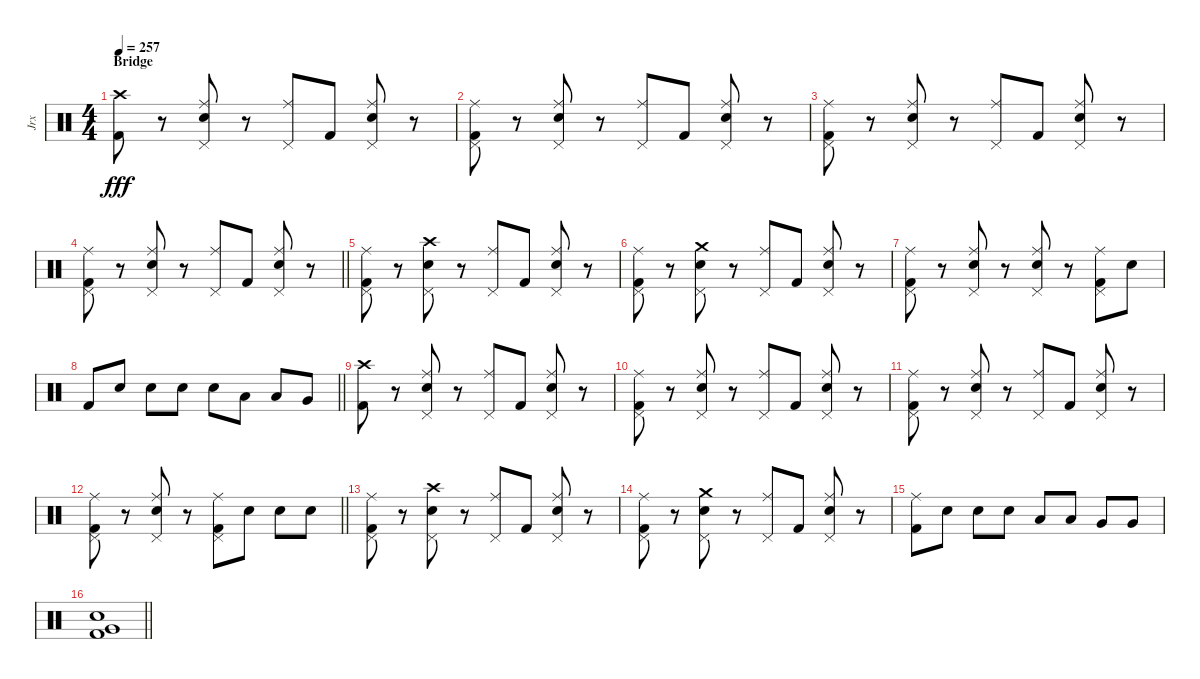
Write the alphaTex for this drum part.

\track ("Jrx" "Jrx") {instrument percussion}
\staff {score}
\articulation defaults
\ts (4 4)
\section ("" "Bridge")
\tempo 257
\clef neutral
\ks c
("Kick (hit) 2" "Crash high (hit)").8{dy fff} r.8 ("Pedal Hi-Hat (hit)" "Snare (hit) 2" "Ride (middle)").8 r.8 ("Pedal Hi-Hat (hit)" "Ride (middle)").8 "Kick (hit) 2".8 ("Pedal Hi-Hat (hit)" "Snare (hit) 2" "Ride (middle)").8 r.8 |
("Pedal Hi-Hat (hit)" "Kick (hit) 2" "Ride (middle)").8 r.8 ("Pedal Hi-Hat (hit)" "Snare (hit) 2" "Ride (middle)").8 r.8 ("Pedal Hi-Hat (hit)" "Ride (middle)").8 "Kick (hit) 2".8 ("Pedal Hi-Hat (hit)" "Snare (hit) 2" "Ride (middle)").8 r.8 |
("Pedal Hi-Hat (hit)" "Kick (hit) 2" "Ride (middle)").8 r.8 ("Pedal Hi-Hat (hit)" "Snare (hit) 2" "Ride (middle)").8 r.8 ("Pedal Hi-Hat (hit)" "Ride (middle)").8 "Kick (hit) 2".8 ("Pedal Hi-Hat (hit)" "Snare (hit) 2" "Ride (middle)").8 r.8 |
\barLineRight lightlight
("Pedal Hi-Hat (hit)" "Kick (hit) 2" "Ride (middle)").8 r.8 ("Pedal Hi-Hat (hit)" "Snare (hit) 2" "Ride (middle)").8 r.8 ("Pedal Hi-Hat (hit)" "Ride (middle)").8 "Kick (hit) 2".8 ("Pedal Hi-Hat (hit)" "Snare (hit) 2" "Ride (middle)").8 r.8 |
("Pedal Hi-Hat (hit)" "Kick (hit) 2" "Ride (middle)").8 r.8 ("Pedal Hi-Hat (hit)" "Snare (hit) 2" "Crash high (hit)").8 r.8 ("Pedal Hi-Hat (hit)" "Ride (middle)").8 "Kick (hit) 2".8 ("Pedal Hi-Hat (hit)" "Snare (hit) 2" "Ride (middle)").8 r.8 |
("Pedal Hi-Hat (hit)" "Kick (hit) 2" "Ride (middle)").8 r.8 ("Pedal Hi-Hat (hit)" "Snare (hit) 2" "Crash medium (hit)").8 r.8 ("Pedal Hi-Hat (hit)" "Ride (middle)").8 "Kick (hit) 2".8 ("Pedal Hi-Hat (hit)" "Snare (hit) 2" "Ride (middle)").8 r.8 |
("Pedal Hi-Hat (hit)" "Kick (hit) 2" "Ride (middle)").8 r.8 ("Pedal Hi-Hat (hit)" "Snare (hit) 2" "Ride (middle)").8 r.8 ("Pedal Hi-Hat (hit)" "Snare (hit) 2" "Ride (middle)").8 r.8 ("Pedal Hi-Hat (hit)" "Kick (hit) 2" "Ride (middle)").8 "Snare (hit) 2".8 |
\barLineRight lightlight "Kick (hit) 2".8 "Snare (hit) 2".8 "Snare (hit) 2".8 "Snare (hit) 2".8 "Snare (hit) 2".8 "Low Tom (hit)".8 "Low Tom (hit)".8 "Very Low Tom (hit)".8
|
("Kick (hit) 2" "Crash high (hit)").8 r.8 ("Pedal Hi-Hat (hit)" "Snare (hit) 2" "Ride (middle)").8 r.8 ("Pedal Hi-Hat (hit)" "Ride (middle)").8 "Kick (hit) 2".8 ("Pedal Hi-Hat (hit)" "Snare (hit) 2" "Ride (middle)").8 r.8 |
("Pedal Hi-Hat (hit)" "Kick (hit) 2" "Ride (middle)").8 r.8 ("Pedal Hi-Hat (hit)" "Snare (hit) 2" "Ride (middle)").8 r.8 ("Pedal Hi-Hat (hit)" "Ride (middle)").8 "Kick (hit) 2".8 ("Pedal Hi-Hat (hit)" "Snare (hit) 2" "Ride (middle)").8 r.8 |
("Pedal Hi-Hat (hit)" "Kick (hit) 2" "Ride (middle)").8 r.8 ("Pedal Hi-Hat (hit)" "Snare (hit) 2" "Ride (middle)").8 r.8 ("Pedal Hi-Hat (hit)" "Ride (middle)").8 "Kick (hit) 2".8 ("Pedal Hi-Hat (hit)" "Snare (hit) 2" "Ride (middle)").8 r.8 |
\barLineRight lightlight
("Pedal Hi-Hat (hit)" "Kick (hit) 2" "Ride (middle)").8 r.8 ("Pedal Hi-Hat (hit)" "Snare (hit) 2" "Ride (middle)").8 r.8 ("Pedal Hi-Hat (hit)" "Kick (hit) 2" "Ride (middle)").8 "Snare (hit) 2".8 "Snare (hit) 2".8 "Snare (hit) 2".8 |
("Pedal Hi-Hat (hit)" "Kick (hit) 2" "Ride (middle)").8 r.8 ("Pedal Hi-Hat (hit)" "Snare (hit) 2" "Crash high (hit)").8 r.8 ("Pedal Hi-Hat (hit)" "Ride (middle)").8 "Kick (hit) 2".8 ("Pedal Hi-Hat (hit)" "Snare (hit) 2" "Ride (middle)").8 r.8 |
("Pedal Hi-Hat (hit)" "Kick (hit) 2" "Ride (middle)").8 r.8 ("Pedal Hi-Hat (hit)" "Snare (hit) 2" "Crash medium (hit)").8 r.8 ("Pedal Hi-Hat (hit)" "Ride (middle)").8 "Kick (hit) 2".8 ("Pedal Hi-Hat (hit)" "Snare (hit) 2" "Ride (middle)").8 r.8 |
("Kick (hit) 2" "Ride (middle)").8 "Snare (hit) 2".8 "Snare (hit) 2".8 "Snare (hit) 2".8 "Low Tom (hit)".8 "Low Tom (hit)".8 "Very Low Tom (hit)".8 "Very Low Tom (hit)".8 |
\barLineRight lightlight
("Snare (hit) 2" "Kick (hit) 2" "Very Low Tom (hit)").1
